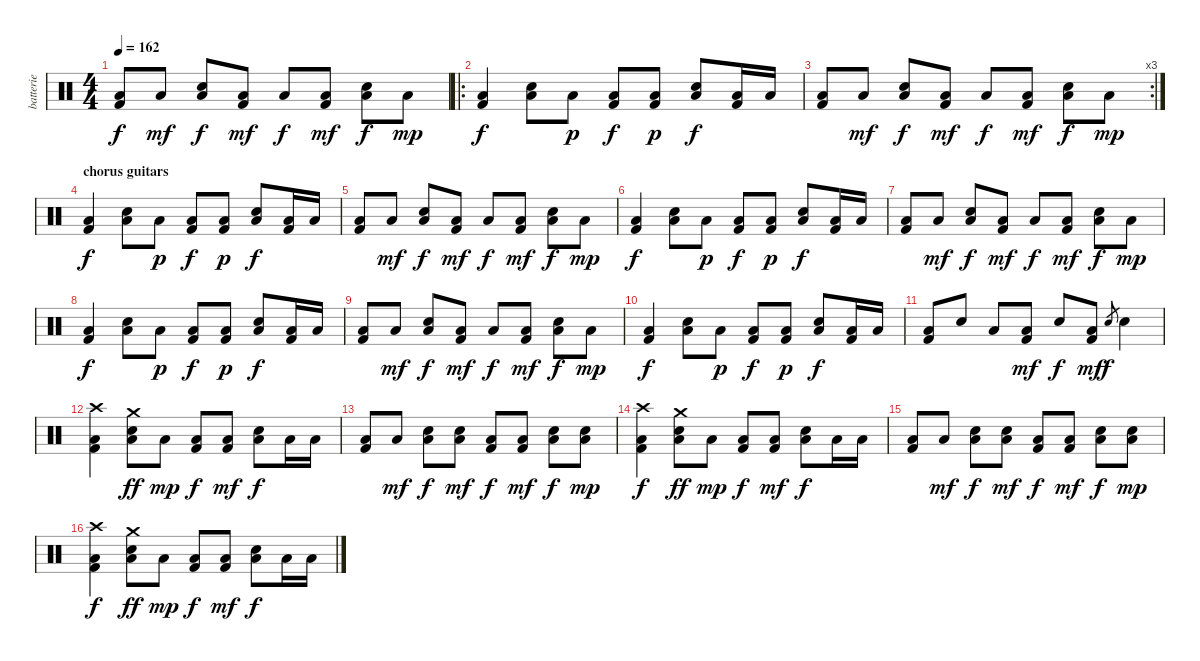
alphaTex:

\track ("batterie" "batterie") {instrument percussion}
\staff {score}
\articulation defaults
\ts (4 4)
\tempo 162
\clef neutral
\ks c
("Low Floor Tom (hit)" "Kick (hit) 2").8{dy f} "Low Floor Tom (hit)".8{dy mf} ("Low Floor Tom (hit)" "Electric Snare (hit)").8{dy f} ("Low Floor Tom (hit)" "Kick (hit) 2").8{dy mf} "Low Floor Tom (hit)".8{dy f} ("Low Floor Tom (hit)" "Kick (hit) 2").8{dy mf} ("Low Floor Tom (hit)" "Electric Snare (hit)").8{dy f} "Low Floor Tom (hit)".8{dy mp} |
\ro
("Low Floor Tom (hit)" "Kick (hit) 2").4{dy f} ("Low Floor Tom (hit)" "Electric Snare (hit)").8 "Low Floor Tom (hit)".8{dy p} ("Low Floor Tom (hit)" "Kick (hit) 2").8{dy f} ("Low Floor Tom (hit)" "Kick (hit) 2").8{dy p} ("Low Floor Tom (hit)" "Electric Snare (hit)").8{dy f} ("Low Floor Tom (hit)" "Kick (hit) 2").16 "Low Floor Tom (hit)".16 |
\rc 3
("Low Floor Tom (hit)" "Kick (hit) 2").8 "Low Floor Tom (hit)".8{dy mf} ("Low Floor Tom (hit)" "Electric Snare (hit)").8{dy f} ("Low Floor Tom (hit)" "Kick (hit) 2").8{dy mf} "Low Floor Tom (hit)".8{dy f} ("Low Floor Tom (hit)" "Kick (hit) 2").8{dy mf} ("Low Floor Tom (hit)" "Electric Snare (hit)").8{dy f} "Low Floor Tom (hit)".8{dy mp} |
\section ("" "chorus guitars")
("Low Floor Tom (hit)" "Kick (hit) 2").4{dy f} ("Low Floor Tom (hit)" "Electric Snare (hit)").8 "Low Floor Tom (hit)".8{dy p} ("Low Floor Tom (hit)" "Kick (hit) 2").8{dy f} ("Low Floor Tom (hit)" "Kick (hit) 2").8{dy p} ("Low Floor Tom (hit)" "Electric Snare (hit)").8{dy f} ("Low Floor Tom (hit)" "Kick (hit) 2").16 "Low Floor Tom (hit)".16 |
("Low Floor Tom (hit)" "Kick (hit) 2").8 "Low Floor Tom (hit)".8{dy mf} ("Low Floor Tom (hit)" "Electric Snare (hit)").8{dy f} ("Low Floor Tom (hit)" "Kick (hit) 2").8{dy mf} "Low Floor Tom (hit)".8{dy f} ("Low Floor Tom (hit)" "Kick (hit) 2").8{dy mf} ("Low Floor Tom (hit)" "Electric Snare (hit)").8{dy f} "Low Floor Tom (hit)".8{dy mp} |
("Low Floor Tom (hit)" "Kick (hit) 2").4{dy f} ("Low Floor Tom (hit)" "Electric Snare (hit)").8 "Low Floor Tom (hit)".8{dy p} ("Low Floor Tom (hit)" "Kick (hit) 2").8{dy f} ("Low Floor Tom (hit)" "Kick (hit) 2").8{dy p} ("Low Floor Tom (hit)" "Electric Snare (hit)").8{dy f} ("Low Floor Tom (hit)" "Kick (hit) 2").16 "Low Floor Tom (hit)".16 |
("Low Floor Tom (hit)" "Kick (hit) 2").8 "Low Floor Tom (hit)".8{dy mf} ("Low Floor Tom (hit)" "Electric Snare (hit)").8{dy f} ("Low Floor Tom (hit)" "Kick (hit) 2").8{dy mf} "Low Floor Tom (hit)".8{dy f} ("Low Floor Tom (hit)" "Kick (hit) 2").8{dy mf} ("Low Floor Tom (hit)" "Electric Snare (hit)").8{dy f} "Low Floor Tom (hit)".8{dy mp} |
("Low Floor Tom (hit)" "Kick (hit) 2").4{dy f} ("Low Floor Tom (hit)" "Electric Snare (hit)").8 "Low Floor Tom (hit)".8{dy p} ("Low Floor Tom (hit)" "Kick (hit) 2").8{dy f} ("Low Floor Tom (hit)" "Kick (hit) 2").8{dy p} ("Low Floor Tom (hit)" "Electric Snare (hit)").8{dy f} ("Low Floor Tom (hit)" "Kick (hit) 2").16 "Low Floor Tom (hit)".16 |
("Low Floor Tom (hit)" "Kick (hit) 2").8 "Low Floor Tom (hit)".8{dy mf} ("Low Floor Tom (hit)" "Electric Snare (hit)").8{dy f} ("Low Floor Tom (hit)" "Kick (hit) 2").8{dy mf} "Low Floor Tom (hit)".8{dy f} ("Low Floor Tom (hit)" "Kick (hit) 2").8{dy mf} ("Low Floor Tom (hit)" "Electric Snare (hit)").8{dy f} "Low Floor Tom (hit)".8{dy mp} |
("Low Floor Tom (hit)" "Kick (hit) 2").4{dy f} ("Low Floor Tom (hit)" "Electric Snare (hit)").8 "Low Floor Tom (hit)".8{dy p} ("Low Floor Tom (hit)" "Kick (hit) 2").8{dy f} ("Low Floor Tom (hit)" "Kick (hit) 2").8{dy p} ("Low Floor Tom (hit)" "Electric Snare (hit)").8{dy f} ("Low Floor Tom (hit)" "Kick (hit) 2").16 "Low Floor Tom (hit)".16 |
("Low Floor Tom (hit)" "Kick (hit) 2").8 "Electric Snare (hit)".8 "Low Floor Tom (hit)".8 ("Low Floor Tom (hit)" "Kick (hit) 2").8{dy mf} "Electric Snare (hit)".8{dy f} ("Low Floor Tom (hit)" "Kick (hit) 2").8{dy mf} "Electric Snare (hit)".8{gr dy f} "Electric Snare (hit)".4 |
("Low Floor Tom (hit)" "Crash high (hit)" "Kick (hit) 2").4 ("Low Floor Tom (hit)" "Crash medium (hit)" "Electric Snare (hit)").8{dy ff} "Low Floor Tom (hit)".8{dy mp} ("Low Floor Tom (hit)" "Kick (hit) 2").8{dy f} ("Low Floor Tom (hit)" "Kick (hit) 2").8{dy mf} ("Low Floor Tom (hit)" "Electric Snare (hit)").8{dy f} "Low Floor Tom (hit)".16 "Low Floor Tom (hit)".16 |
("Low Floor Tom (hit)" "Kick (hit) 2").8 "Low Floor Tom (hit)".8{dy mf} ("Low Floor Tom (hit)" "Electric Snare (hit)").8{dy f} ("Low Floor Tom (hit)" "Electric Snare (hit)").8{dy mf} ("Low Floor Tom (hit)" "Kick (hit) 2").8{dy f} ("Low Floor Tom (hit)" "Kick (hit) 2").8{dy mf} ("Low Floor Tom (hit)" "Electric Snare (hit)").8{dy f} ("Low Floor Tom (hit)" "Electric Snare (hit)").8{dy mp} |
("Low Floor Tom (hit)" "Crash high (hit)" "Kick (hit) 2").4{dy f} ("Low Floor Tom (hit)" "Crash medium (hit)" "Electric Snare (hit)").8{dy ff} "Low Floor Tom (hit)".8{dy mp} ("Low Floor Tom (hit)" "Kick (hit) 2").8{dy f} ("Low Floor Tom (hit)" "Kick (hit) 2").8{dy mf} ("Low Floor Tom (hit)" "Electric Snare (hit)").8{dy f} "Low Floor Tom (hit)".16 "Low Floor Tom (hit)".16 |
("Low Floor Tom (hit)" "Kick (hit) 2").8 "Low Floor Tom (hit)".8{dy mf} ("Low Floor Tom (hit)" "Electric Snare (hit)").8{dy f} ("Low Floor Tom (hit)" "Electric Snare (hit)").8{dy mf} ("Low Floor Tom (hit)" "Kick (hit) 2").8{dy f} ("Low Floor Tom (hit)" "Kick (hit) 2").8{dy mf} ("Low Floor Tom (hit)" "Electric Snare (hit)").8{dy f} ("Low Floor Tom (hit)" "Electric Snare (hit)").8{dy mp} |
("Low Floor Tom (hit)" "Crash high (hit)" "Kick (hit) 2").4{dy f} ("Low Floor Tom (hit)" "Crash medium (hit)" "Electric Snare (hit)").8{dy ff} "Low Floor Tom (hit)".8{dy mp} ("Low Floor Tom (hit)" "Kick (hit) 2").8{dy f} ("Low Floor Tom (hit)" "Kick (hit) 2").8{dy mf} ("Low Floor Tom (hit)" "Electric Snare (hit)").8{dy f} "Low Floor Tom (hit)".16 "Low Floor Tom (hit)".16
